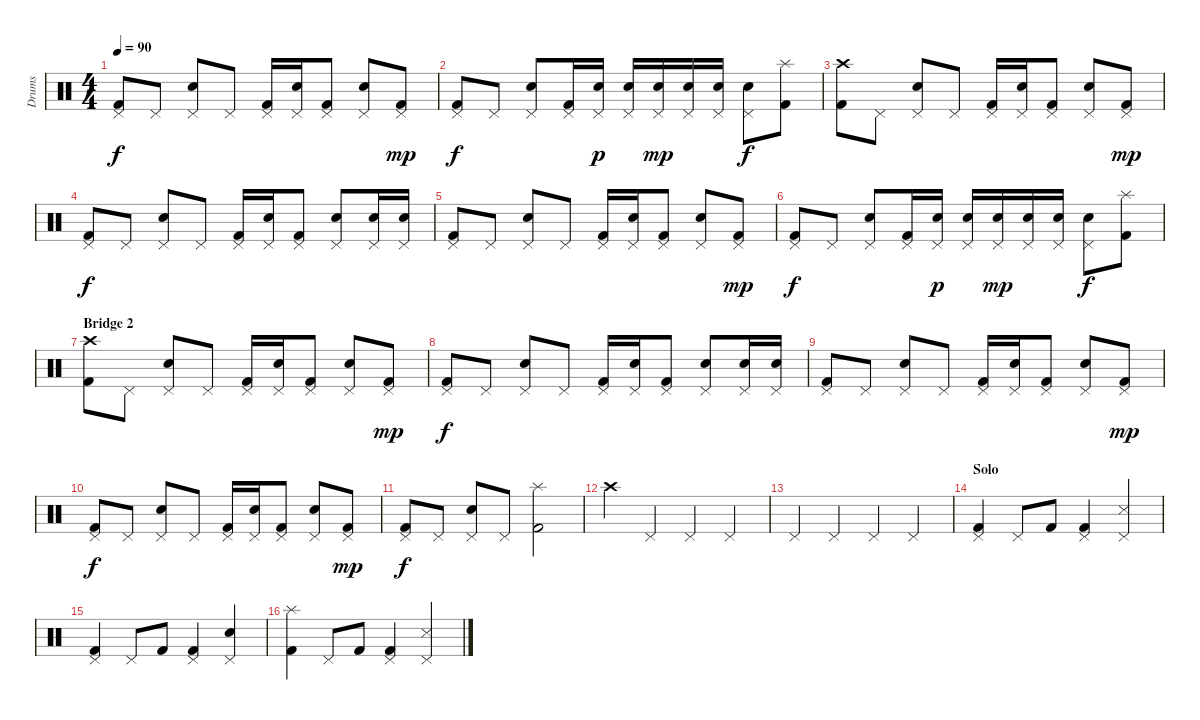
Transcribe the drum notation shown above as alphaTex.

\track ("Drums" "Drums") {instrument percussion}
\staff {score}
\articulation defaults
\ts (4 4)
\tempo 90
\clef neutral
\ks c
("Pedal Hi-Hat (hit)" "Kick (hit) 2").8{dy f} "Pedal Hi-Hat (hit)".8 ("Pedal Hi-Hat (hit)" "Electric Snare (hit)").8 "Pedal Hi-Hat (hit)".8 ("Pedal Hi-Hat (hit)" "Kick (hit) 2").16 ("Pedal Hi-Hat (hit)" "Electric Snare (hit)").16 ("Pedal Hi-Hat (hit)" "Kick (hit) 2").8 ("Pedal Hi-Hat (hit)" "Electric Snare (hit)").8 ("Pedal Hi-Hat (hit)" "Kick (hit) 2").8{dy mp} |
("Pedal Hi-Hat (hit)" "Kick (hit) 2").8{dy f} "Pedal Hi-Hat (hit)".8 ("Pedal Hi-Hat (hit)" "Electric Snare (hit)").8 ("Pedal Hi-Hat (hit)" "Kick (hit) 2").16 ("Pedal Hi-Hat (hit)" "Electric Snare (hit)").16{dy p} ("Pedal Hi-Hat (hit)" "Electric Snare (hit)").16 ("Pedal Hi-Hat (hit)" "Electric Snare (hit)").16{dy mp} ("Pedal Hi-Hat (hit)" "Electric Snare (hit)").16 ("Pedal Hi-Hat (hit)" "Electric Snare (hit)").16 ("Pedal Hi-Hat (hit)" "Electric Snare (hit)").8{dy f} ("Splash (hit)" "Kick (hit) 2").8 |
("Crash high (hit)" "Kick (hit) 2").8 "Pedal Hi-Hat (hit)".8 ("Pedal Hi-Hat (hit)" "Electric Snare (hit)").8 "Pedal Hi-Hat (hit)".8 ("Pedal Hi-Hat (hit)" "Kick (hit) 2").16 ("Pedal Hi-Hat (hit)" "Electric Snare (hit)").16 ("Pedal Hi-Hat (hit)" "Kick (hit) 2").8 ("Pedal Hi-Hat (hit)" "Electric Snare (hit)").8 ("Pedal Hi-Hat (hit)" "Kick (hit) 2").8{dy mp} |
("Pedal Hi-Hat (hit)" "Kick (hit) 2").8{dy f} "Pedal Hi-Hat (hit)".8 ("Pedal Hi-Hat (hit)" "Electric Snare (hit)").8 "Pedal Hi-Hat (hit)".8 ("Pedal Hi-Hat (hit)" "Kick (hit) 2").16 ("Pedal Hi-Hat (hit)" "Electric Snare (hit)").16 ("Pedal Hi-Hat (hit)" "Kick (hit) 2").8 ("Pedal Hi-Hat (hit)" "Electric Snare (hit)").8 ("Pedal Hi-Hat (hit)" "Electric Snare (hit)").16 ("Pedal Hi-Hat (hit)" "Electric Snare (hit)").16 |
("Pedal Hi-Hat (hit)" "Kick (hit) 2").8 "Pedal Hi-Hat (hit)".8 ("Pedal Hi-Hat (hit)" "Electric Snare (hit)").8 "Pedal Hi-Hat (hit)".8 ("Pedal Hi-Hat (hit)" "Kick (hit) 2").16 ("Pedal Hi-Hat (hit)" "Electric Snare (hit)").16 ("Pedal Hi-Hat (hit)" "Kick (hit) 2").8 ("Pedal Hi-Hat (hit)" "Electric Snare (hit)").8 ("Pedal Hi-Hat (hit)" "Kick (hit) 2").8{dy mp} |
("Pedal Hi-Hat (hit)" "Kick (hit) 2").8{dy f} "Pedal Hi-Hat (hit)".8 ("Pedal Hi-Hat (hit)" "Electric Snare (hit)").8 ("Pedal Hi-Hat (hit)" "Kick (hit) 2").16 ("Pedal Hi-Hat (hit)" "Electric Snare (hit)").16{dy p} ("Pedal Hi-Hat (hit)" "Electric Snare (hit)").16 ("Pedal Hi-Hat (hit)" "Electric Snare (hit)").16{dy mp} ("Pedal Hi-Hat (hit)" "Electric Snare (hit)").16 ("Pedal Hi-Hat (hit)" "Electric Snare (hit)").16 ("Pedal Hi-Hat (hit)" "Electric Snare (hit)").8{dy f} ("Splash (hit)" "Kick (hit) 2").8 |
\section ("" "Bridge 2")
("Crash high (hit)" "Kick (hit) 2").8 "Pedal Hi-Hat (hit)".8 ("Pedal Hi-Hat (hit)" "Electric Snare (hit)").8 "Pedal Hi-Hat (hit)".8 ("Pedal Hi-Hat (hit)" "Kick (hit) 2").16 ("Pedal Hi-Hat (hit)" "Electric Snare (hit)").16 ("Pedal Hi-Hat (hit)" "Kick (hit) 2").8 ("Pedal Hi-Hat (hit)" "Electric Snare (hit)").8 ("Pedal Hi-Hat (hit)" "Kick (hit) 2").8{dy mp} |
("Pedal Hi-Hat (hit)" "Kick (hit) 2").8{dy f} "Pedal Hi-Hat (hit)".8 ("Pedal Hi-Hat (hit)" "Electric Snare (hit)").8 "Pedal Hi-Hat (hit)".8 ("Pedal Hi-Hat (hit)" "Kick (hit) 2").16 ("Pedal Hi-Hat (hit)" "Electric Snare (hit)").16 ("Pedal Hi-Hat (hit)" "Kick (hit) 2").8 ("Pedal Hi-Hat (hit)" "Electric Snare (hit)").8 ("Pedal Hi-Hat (hit)" "Electric Snare (hit)").16 ("Pedal Hi-Hat (hit)" "Electric Snare (hit)").16 |
("Pedal Hi-Hat (hit)" "Kick (hit) 2").8 "Pedal Hi-Hat (hit)".8 ("Pedal Hi-Hat (hit)" "Electric Snare (hit)").8 "Pedal Hi-Hat (hit)".8 ("Pedal Hi-Hat (hit)" "Kick (hit) 2").16 ("Pedal Hi-Hat (hit)" "Electric Snare (hit)").16 ("Pedal Hi-Hat (hit)" "Kick (hit) 2").8 ("Pedal Hi-Hat (hit)" "Electric Snare (hit)").8 ("Pedal Hi-Hat (hit)" "Kick (hit) 2").8{dy mp} |
("Pedal Hi-Hat (hit)" "Kick (hit) 2").8{dy f} "Pedal Hi-Hat (hit)".8 ("Pedal Hi-Hat (hit)" "Electric Snare (hit)").8 "Pedal Hi-Hat (hit)".8 ("Pedal Hi-Hat (hit)" "Kick (hit) 2").16 ("Pedal Hi-Hat (hit)" "Electric Snare (hit)").16 ("Pedal Hi-Hat (hit)" "Kick (hit) 2").8 ("Pedal Hi-Hat (hit)" "Electric Snare (hit)").8 ("Pedal Hi-Hat (hit)" "Kick (hit) 2").8{dy mp} |
("Pedal Hi-Hat (hit)" "Kick (hit) 2").8{dy f} "Pedal Hi-Hat (hit)".8 ("Pedal Hi-Hat (hit)" "Electric Snare (hit)").8 "Pedal Hi-Hat (hit)".8 ("Splash (hit)" "Kick (hit) 2").2 |
"Crash high (hit)".4 "Pedal Hi-Hat (hit)".4 "Pedal Hi-Hat (hit)".4 "Pedal Hi-Hat (hit)".4 |
"Pedal Hi-Hat (hit)".4 "Pedal Hi-Hat (hit)".4 "Pedal Hi-Hat (hit)".4 "Pedal Hi-Hat (hit)".4 |
\section ("" "Solo")
("Pedal Hi-Hat (hit)" "Kick (hit) 2").4 "Pedal Hi-Hat (hit)".8 "Kick (hit) 2".8 ("Pedal Hi-Hat (hit)" "Kick (hit) 2").4 ("Pedal Hi-Hat (hit)" "Snare (side stick) 3").4 |
("Pedal Hi-Hat (hit)" "Kick (hit) 2").4 "Pedal Hi-Hat (hit)".8 "Kick (hit) 2".8 ("Pedal Hi-Hat (hit)" "Kick (hit) 2").4 ("Pedal Hi-Hat (hit)" "Snare (hit) 2").4 |
("Splash (hit)" "Kick (hit) 2").4 "Pedal Hi-Hat (hit)".8 "Kick (hit) 2".8 ("Pedal Hi-Hat (hit)" "Kick (hit) 2").4 ("Pedal Hi-Hat (hit)" "Snare (side stick) 3").4
